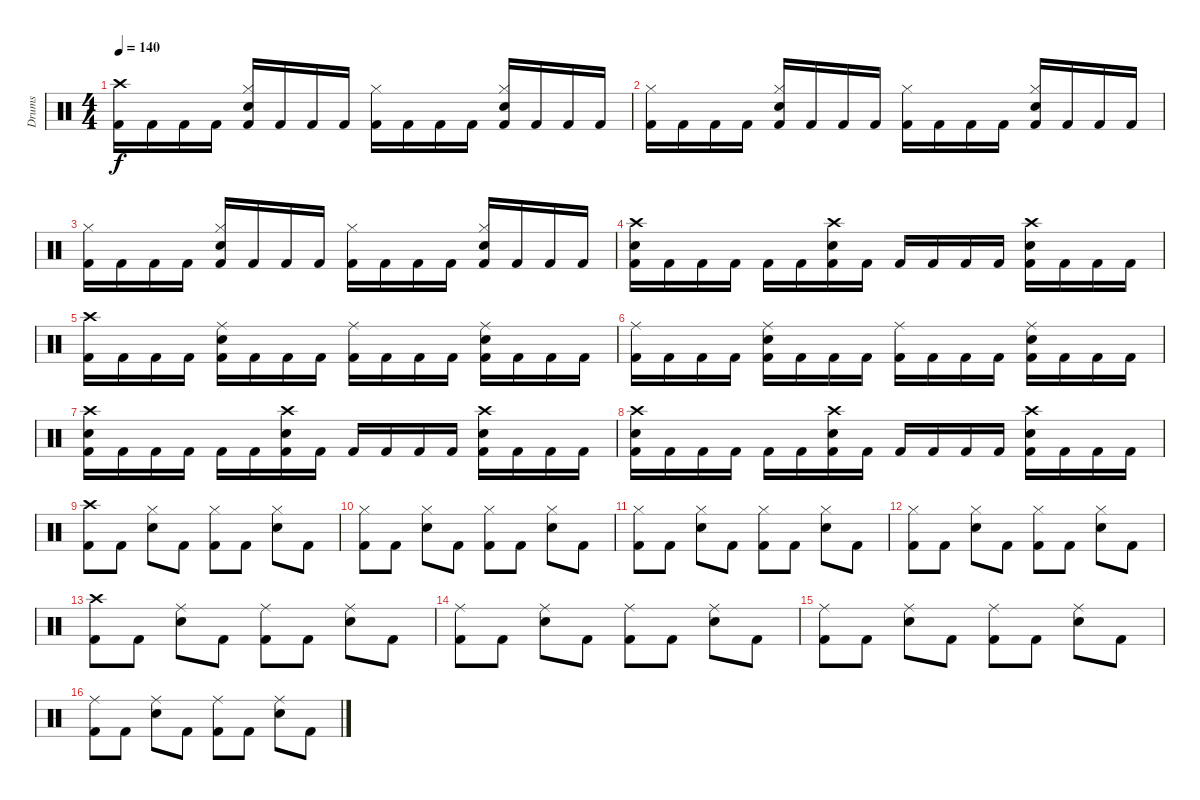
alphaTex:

\track ("Drums" "Drums") {instrument percussion}
\staff {score}
\articulation defaults
\ts (4 4)
\tempo 140
\clef neutral
\ks c
("Crash high (hit)" "Kick (hit) 2").16{dy f} "Kick (hit) 2".16 "Kick (hit) 2".16 "Kick (hit) 2".16 ("Hi-Hat (closed)" "Electric Snare (hit)" "Kick (hit) 2").16 "Kick (hit) 2".16 "Kick (hit) 2".16 "Kick (hit) 2".16 ("Hi-Hat (closed)" "Kick (hit) 2").16 "Kick (hit) 2".16 "Kick (hit) 2".16 "Kick (hit) 2".16 ("Hi-Hat (closed)" "Electric Snare (hit)" "Kick (hit) 2").16 "Kick (hit) 2".16 "Kick (hit) 2".16 "Kick (hit) 2".16 |
("Hi-Hat (closed)" "Kick (hit) 2").16 "Kick (hit) 2".16 "Kick (hit) 2".16 "Kick (hit) 2".16 ("Hi-Hat (closed)" "Electric Snare (hit)" "Kick (hit) 2").16 "Kick (hit) 2".16 "Kick (hit) 2".16 "Kick (hit) 2".16 ("Hi-Hat (closed)" "Kick (hit) 2").16 "Kick (hit) 2".16 "Kick (hit) 2".16 "Kick (hit) 2".16 ("Hi-Hat (closed)" "Electric Snare (hit)" "Kick (hit) 2").16 "Kick (hit) 2".16 "Kick (hit) 2".16 "Kick (hit) 2".16 |
("Hi-Hat (closed)" "Kick (hit) 2").16 "Kick (hit) 2".16 "Kick (hit) 2".16 "Kick (hit) 2".16 ("Hi-Hat (closed)" "Electric Snare (hit)" "Kick (hit) 2").16 "Kick (hit) 2".16 "Kick (hit) 2".16 "Kick (hit) 2".16 ("Hi-Hat (closed)" "Kick (hit) 2").16 "Kick (hit) 2".16 "Kick (hit) 2".16 "Kick (hit) 2".16 ("Hi-Hat (closed)" "Electric Snare (hit)" "Kick (hit) 2").16 "Kick (hit) 2".16 "Kick (hit) 2".16 "Kick (hit) 2".16 |
("Crash high (hit)" "Electric Snare (hit)" "Kick (hit) 2").16 "Kick (hit) 2".16 "Kick (hit) 2".16 "Kick (hit) 2".16 "Kick (hit) 2".16 "Kick (hit) 2".16 ("Crash high (hit)" "Electric Snare (hit)" "Kick (hit) 2").16 "Kick (hit) 2".16 "Kick (hit) 2".16 "Kick (hit) 2".16 "Kick (hit) 2".16 "Kick (hit) 2".16 ("Crash high (hit)" "Electric Snare (hit)" "Kick (hit) 2").16 "Kick (hit) 2".16 "Kick (hit) 2".16 "Kick (hit) 2".16 |
("Crash high (hit)" "Kick (hit) 2").16 "Kick (hit) 2".16 "Kick (hit) 2".16 "Kick (hit) 2".16 ("Ride (middle)" "Electric Snare (hit)" "Kick (hit) 2").16 "Kick (hit) 2".16 "Kick (hit) 2".16 "Kick (hit) 2".16 ("Ride (middle)" "Kick (hit) 2").16 "Kick (hit) 2".16 "Kick (hit) 2".16 "Kick (hit) 2".16 ("Ride (middle)" "Electric Snare (hit)" "Kick (hit) 2").16 "Kick (hit) 2".16 "Kick (hit) 2".16 "Kick (hit) 2".16 |
("Ride (middle)" "Kick (hit) 2").16 "Kick (hit) 2".16 "Kick (hit) 2".16 "Kick (hit) 2".16 ("Ride (middle)" "Electric Snare (hit)" "Kick (hit) 2").16 "Kick (hit) 2".16 "Kick (hit) 2".16 "Kick (hit) 2".16 ("Ride (middle)" "Kick (hit) 2").16 "Kick (hit) 2".16 "Kick (hit) 2".16 "Kick (hit) 2".16 ("Ride (middle)" "Electric Snare (hit)" "Kick (hit) 2").16 "Kick (hit) 2".16 "Kick (hit) 2".16 "Kick (hit) 2".16 |
("Crash high (hit)" "Electric Snare (hit)" "Kick (hit) 2").16 "Kick (hit) 2".16 "Kick (hit) 2".16 "Kick (hit) 2".16 "Kick (hit) 2".16 "Kick (hit) 2".16 ("Crash high (hit)" "Electric Snare (hit)" "Kick (hit) 2").16 "Kick (hit) 2".16 "Kick (hit) 2".16 "Kick (hit) 2".16 "Kick (hit) 2".16 "Kick (hit) 2".16 ("Crash high (hit)" "Electric Snare (hit)" "Kick (hit) 2").16 "Kick (hit) 2".16 "Kick (hit) 2".16 "Kick (hit) 2".16 |
("Crash high (hit)" "Electric Snare (hit)" "Kick (hit) 2").16 "Kick (hit) 2".16 "Kick (hit) 2".16 "Kick (hit) 2".16 "Kick (hit) 2".16 "Kick (hit) 2".16 ("Crash high (hit)" "Electric Snare (hit)" "Kick (hit) 2").16 "Kick (hit) 2".16 "Kick (hit) 2".16 "Kick (hit) 2".16 "Kick (hit) 2".16 "Kick (hit) 2".16 ("Crash high (hit)" "Electric Snare (hit)" "Kick (hit) 2").16 "Kick (hit) 2".16 "Kick (hit) 2".16 "Kick (hit) 2".16 |
("Crash high (hit)" "Kick (hit) 2").8 "Kick (hit) 2".8 ("Hi-Hat (closed)" "Electric Snare (hit)").8 "Kick (hit) 2".8 ("Hi-Hat (closed)" "Kick (hit) 2").8 "Kick (hit) 2".8 ("Hi-Hat (closed)" "Electric Snare (hit)").8 "Kick (hit) 2".8 |
("Hi-Hat (closed)" "Kick (hit) 2").8 "Kick (hit) 2".8 ("Hi-Hat (closed)" "Electric Snare (hit)").8 "Kick (hit) 2".8 ("Hi-Hat (closed)" "Kick (hit) 2").8 "Kick (hit) 2".8 ("Hi-Hat (closed)" "Electric Snare (hit)").8 "Kick (hit) 2".8 |
("Hi-Hat (closed)" "Kick (hit) 2").8 "Kick (hit) 2".8 ("Hi-Hat (closed)" "Electric Snare (hit)").8 "Kick (hit) 2".8 ("Hi-Hat (closed)" "Kick (hit) 2").8 "Kick (hit) 2".8 ("Hi-Hat (closed)" "Electric Snare (hit)").8 "Kick (hit) 2".8 |
("Hi-Hat (closed)" "Kick (hit) 2").8 "Kick (hit) 2".8 ("Hi-Hat (closed)" "Electric Snare (hit)").8 "Kick (hit) 2".8 ("Hi-Hat (closed)" "Kick (hit) 2").8 "Kick (hit) 2".8 ("Hi-Hat (closed)" "Electric Snare (hit)").8 "Kick (hit) 2".8 |
("Crash high (hit)" "Kick (hit) 2").8 "Kick (hit) 2".8 ("Ride (middle)" "Electric Snare (hit)").8 "Kick (hit) 2".8 ("Ride (middle)" "Kick (hit) 2").8 "Kick (hit) 2".8 ("Ride (middle)" "Electric Snare (hit)").8 "Kick (hit) 2".8 |
("Ride (middle)" "Kick (hit) 2").8 "Kick (hit) 2".8 ("Ride (middle)" "Electric Snare (hit)").8 "Kick (hit) 2".8 ("Ride (middle)" "Kick (hit) 2").8 "Kick (hit) 2".8 ("Ride (middle)" "Electric Snare (hit)").8 "Kick (hit) 2".8 |
("Ride (middle)" "Kick (hit) 2").8 "Kick (hit) 2".8 ("Ride (middle)" "Electric Snare (hit)").8 "Kick (hit) 2".8 ("Ride (middle)" "Kick (hit) 2").8 "Kick (hit) 2".8 ("Ride (middle)" "Electric Snare (hit)").8 "Kick (hit) 2".8 |
("Ride (middle)" "Kick (hit) 2").8 "Kick (hit) 2".8 ("Ride (middle)" "Electric Snare (hit)").8 "Kick (hit) 2".8 ("Ride (middle)" "Kick (hit) 2").8 "Kick (hit) 2".8 ("Ride (middle)" "Electric Snare (hit)").8 "Kick (hit) 2".8
